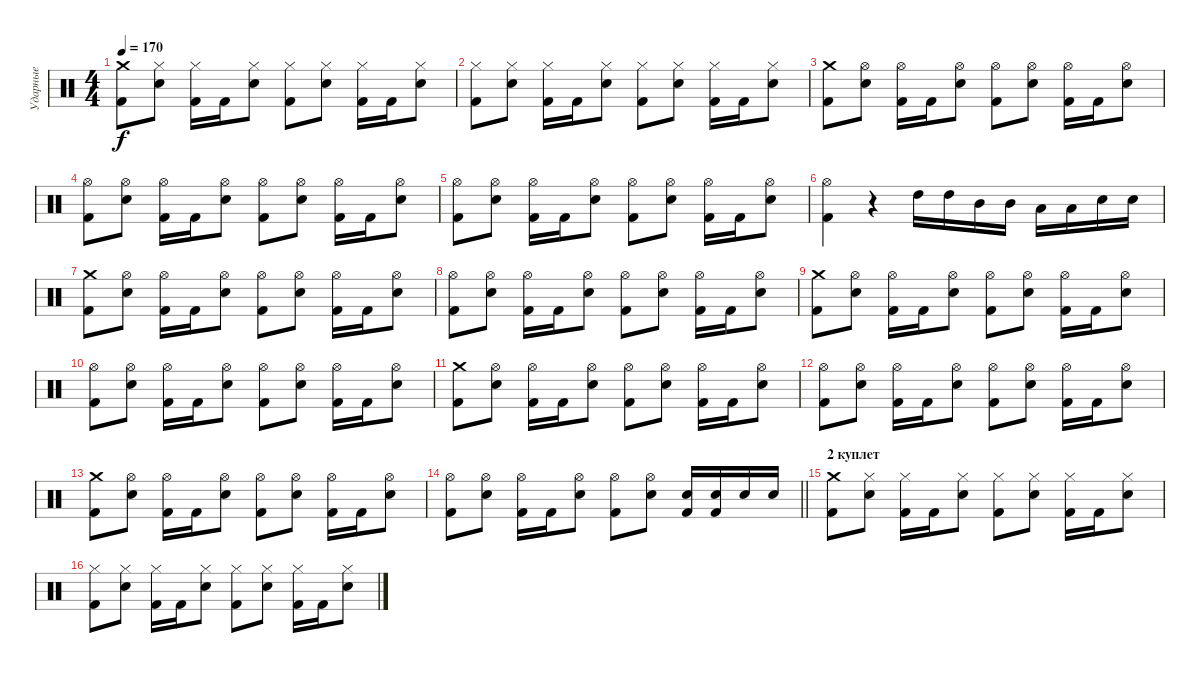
\track ("Ударные" "Ударные") {instrument percussion}
\staff {score}
\articulation defaults
\ts (4 4)
\tempo 170
\clef neutral
\ks c
("Crash medium (hit)" "Kick (hit) 2").8{dy f} ("Hi-Hat (closed)" "Snare (hit) 2").8 ("Hi-Hat (closed)" "Kick (hit) 2").16 "Kick (hit) 2".16 ("Hi-Hat (closed)" "Snare (hit) 2").8 ("Hi-Hat (closed)" "Kick (hit) 2").8 ("Hi-Hat (closed)" "Snare (hit) 2").8 ("Hi-Hat (closed)" "Kick (hit) 2").16 "Kick (hit) 2".16 ("Hi-Hat (closed)" "Snare (hit) 2").8 |
("Hi-Hat (closed)" "Kick (hit) 2").8 ("Hi-Hat (closed)" "Snare (hit) 2").8 ("Hi-Hat (closed)" "Kick (hit) 2").16 "Kick (hit) 2".16 ("Hi-Hat (closed)" "Snare (hit) 2").8 ("Hi-Hat (closed)" "Kick (hit) 2").8 ("Hi-Hat (closed)" "Snare (hit) 2").8 ("Hi-Hat (closed)" "Kick (hit) 2").16 "Kick (hit) 2".16 ("Hi-Hat (closed)" "Snare (hit) 2").8 |
("Crash medium (hit)" "Kick (hit) 2").8 ("Hi-Hat (open)" "Snare (hit) 2").8 ("Hi-Hat (open)" "Kick (hit) 2").16 "Kick (hit) 2".16 ("Hi-Hat (open)" "Snare (hit) 2").8 ("Hi-Hat (open)" "Kick (hit) 2").8 ("Hi-Hat (open)" "Snare (hit) 2").8 ("Hi-Hat (open)" "Kick (hit) 2").16 "Kick (hit) 2".16 ("Hi-Hat (open)" "Snare (hit) 2").8 |
("Hi-Hat (open)" "Kick (hit) 2").8 ("Hi-Hat (open)" "Snare (hit) 2").8 ("Hi-Hat (open)" "Kick (hit) 2").16 "Kick (hit) 2".16 ("Hi-Hat (open)" "Snare (hit) 2").8 ("Hi-Hat (open)" "Kick (hit) 2").8 ("Hi-Hat (open)" "Snare (hit) 2").8 ("Hi-Hat (open)" "Kick (hit) 2").16 "Kick (hit) 2".16 ("Hi-Hat (open)" "Snare (hit) 2").8 |
("Hi-Hat (open)" "Kick (hit) 2").8 ("Hi-Hat (open)" "Snare (hit) 2").8 ("Hi-Hat (open)" "Kick (hit) 2").16 "Kick (hit) 2".16 ("Hi-Hat (open)" "Snare (hit) 2").8 ("Hi-Hat (open)" "Kick (hit) 2").8 ("Hi-Hat (open)" "Snare (hit) 2").8 ("Hi-Hat (open)" "Kick (hit) 2").16 "Kick (hit) 2".16 ("Hi-Hat (open)" "Snare (hit) 2").8 |
("Hi-Hat (open)" "Kick (hit) 2").4 r.4 "High Tom (hit)".16 "High Tom (hit)".16 "Mid Tom (hit)".16 "Mid Tom (hit)".16 "Low Tom (hit)".16 "Low Tom (hit)".16 "Snare (hit) 2".16 "Snare (hit) 2".16 |
("Crash medium (hit)" "Kick (hit) 2").8 ("Hi-Hat (open)" "Snare (hit) 2").8 ("Hi-Hat (open)" "Kick (hit) 2").16 "Kick (hit) 2".16 ("Hi-Hat (open)" "Snare (hit) 2").8 ("Hi-Hat (open)" "Kick (hit) 2").8 ("Hi-Hat (open)" "Snare (hit) 2").8 ("Hi-Hat (open)" "Kick (hit) 2").16 "Kick (hit) 2".16 ("Hi-Hat (open)" "Snare (hit) 2").8 |
("Hi-Hat (open)" "Kick (hit) 2").8 ("Hi-Hat (open)" "Snare (hit) 2").8 ("Hi-Hat (open)" "Kick (hit) 2").16 "Kick (hit) 2".16 ("Hi-Hat (open)" "Snare (hit) 2").8 ("Hi-Hat (open)" "Kick (hit) 2").8 ("Hi-Hat (open)" "Snare (hit) 2").8 ("Hi-Hat (open)" "Kick (hit) 2").16 "Kick (hit) 2".16 ("Hi-Hat (open)" "Snare (hit) 2").8 |
("Crash medium (hit)" "Kick (hit) 2").8 ("Hi-Hat (open)" "Snare (hit) 2").8 ("Hi-Hat (open)" "Kick (hit) 2").16 "Kick (hit) 2".16 ("Hi-Hat (open)" "Snare (hit) 2").8 ("Hi-Hat (open)" "Kick (hit) 2").8 ("Hi-Hat (open)" "Snare (hit) 2").8 ("Hi-Hat (open)" "Kick (hit) 2").16 "Kick (hit) 2".16 ("Hi-Hat (open)" "Snare (hit) 2").8 |
("Hi-Hat (open)" "Kick (hit) 2").8 ("Hi-Hat (open)" "Snare (hit) 2").8 ("Hi-Hat (open)" "Kick (hit) 2").16 "Kick (hit) 2".16 ("Hi-Hat (open)" "Snare (hit) 2").8 ("Hi-Hat (open)" "Kick (hit) 2").8 ("Hi-Hat (open)" "Snare (hit) 2").8 ("Hi-Hat (open)" "Kick (hit) 2").16 "Kick (hit) 2".16 ("Hi-Hat (open)" "Snare (hit) 2").8 |
("Crash medium (hit)" "Kick (hit) 2").8 ("Hi-Hat (open)" "Snare (hit) 2").8 ("Hi-Hat (open)" "Kick (hit) 2").16 "Kick (hit) 2".16 ("Hi-Hat (open)" "Snare (hit) 2").8 ("Hi-Hat (open)" "Kick (hit) 2").8 ("Hi-Hat (open)" "Snare (hit) 2").8 ("Hi-Hat (open)" "Kick (hit) 2").16 "Kick (hit) 2".16 ("Hi-Hat (open)" "Snare (hit) 2").8 |
("Hi-Hat (open)" "Kick (hit) 2").8 ("Hi-Hat (open)" "Snare (hit) 2").8 ("Hi-Hat (open)" "Kick (hit) 2").16 "Kick (hit) 2".16 ("Hi-Hat (open)" "Snare (hit) 2").8 ("Hi-Hat (open)" "Kick (hit) 2").8 ("Hi-Hat (open)" "Snare (hit) 2").8 ("Hi-Hat (open)" "Kick (hit) 2").16 "Kick (hit) 2".16 ("Hi-Hat (open)" "Snare (hit) 2").8 |
("Crash medium (hit)" "Kick (hit) 2").8 ("Hi-Hat (open)" "Snare (hit) 2").8 ("Hi-Hat (open)" "Kick (hit) 2").16 "Kick (hit) 2".16 ("Hi-Hat (open)" "Snare (hit) 2").8 ("Hi-Hat (open)" "Kick (hit) 2").8 ("Hi-Hat (open)" "Snare (hit) 2").8 ("Hi-Hat (open)" "Kick (hit) 2").16 "Kick (hit) 2".16 ("Hi-Hat (open)" "Snare (hit) 2").8 |
\barLineRight lightlight
("Hi-Hat (open)" "Kick (hit) 2").8 ("Hi-Hat (open)" "Snare (hit) 2").8 ("Hi-Hat (open)" "Kick (hit) 2").16 "Kick (hit) 2".16 ("Hi-Hat (open)" "Snare (hit) 2").8 ("Hi-Hat (open)" "Kick (hit) 2").8 ("Hi-Hat (open)" "Snare (hit) 2").8 ("Snare (hit) 2" "Kick (hit) 2").16 ("Snare (hit) 2" "Kick (hit) 2").16 "Snare (hit) 2".16 "Snare (hit) 2".16 |
\section ("" "2 куплет")
("Crash medium (hit)" "Kick (hit) 2").8 ("Hi-Hat (closed)" "Snare (hit) 2").8 ("Hi-Hat (closed)" "Kick (hit) 2").16 "Kick (hit) 2".16 ("Hi-Hat (closed)" "Snare (hit) 2").8 ("Hi-Hat (closed)" "Kick (hit) 2").8 ("Hi-Hat (closed)" "Snare (hit) 2").8 ("Hi-Hat (closed)" "Kick (hit) 2").16 "Kick (hit) 2".16 ("Hi-Hat (closed)" "Snare (hit) 2").8 |
("Hi-Hat (closed)" "Kick (hit) 2").8 ("Hi-Hat (closed)" "Snare (hit) 2").8 ("Hi-Hat (closed)" "Kick (hit) 2").16 "Kick (hit) 2".16 ("Hi-Hat (closed)" "Snare (hit) 2").8 ("Hi-Hat (closed)" "Kick (hit) 2").8 ("Hi-Hat (closed)" "Snare (hit) 2").8 ("Hi-Hat (closed)" "Kick (hit) 2").16 "Kick (hit) 2".16 ("Hi-Hat (closed)" "Snare (hit) 2").8
